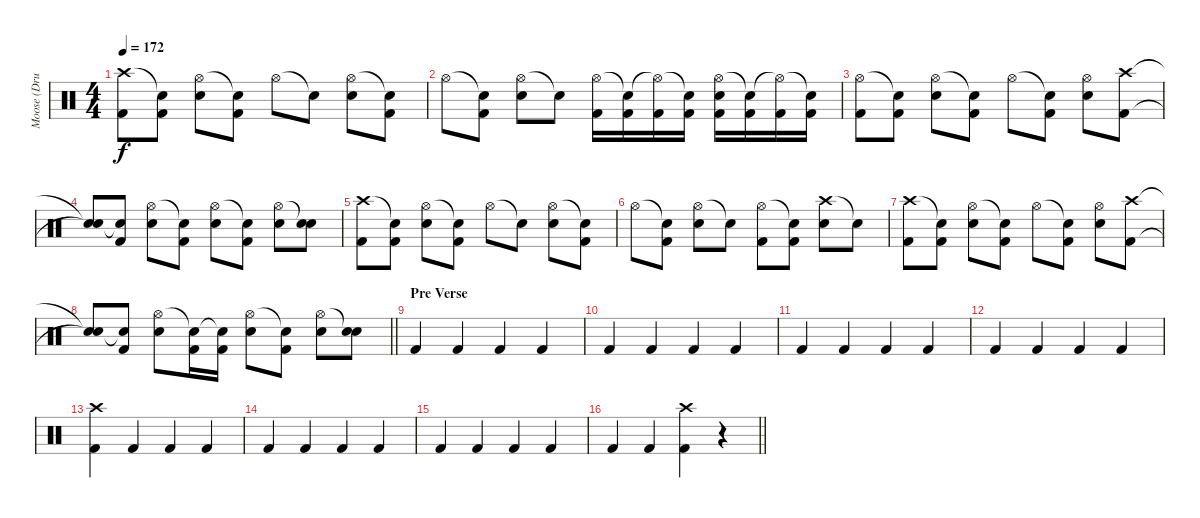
\track ("Moose (Drums)" "Moose (Dru") {instrument percussion}
\staff {score}
\articulation defaults
\ts (4 4)
\tempo 172
\clef neutral
\ks c
("Crash high (hit)" "Kick (hit) 2").8{dy f} ("Snare (hit)"{t} "Kick (hit) 2").8 ("Hi-Hat (open)" "Electric Snare (hit)").8 ("Snare (hit)"{t} "Kick (hit) 2").8 "Hi-Hat (open)".8 "Snare (hit)"{t}.8 ("Hi-Hat (open)" "Electric Snare (hit)").8 ("Snare (hit)"{t} "Kick (hit) 2").8 |
"Hi-Hat (open)".8 ("Snare (hit)"{t} "Kick (hit) 2").8 ("Hi-Hat (open)" "Electric Snare (hit)").8 "Snare (hit)"{t}.8 ("Hi-Hat (open)" "Kick (hit) 2").16 ("Snare (hit)"{t} "Kick (hit) 2").16 ("Hi-Hat (open)"{t} "Kick (hit) 2").16 ("Snare (hit)"{t} "Kick (hit) 2").16 ("Hi-Hat (open)" "Electric Snare (hit)" "Kick (hit) 2").16 ("Snare (hit)"{t} "Kick (hit) 2").16 ("Hi-Hat (open)"{t} "Kick (hit) 2").16 ("Snare (hit)"{t} "Kick (hit) 2").16 |
("Hi-Hat (open)" "Kick (hit) 2").8 ("Snare (hit)"{t} "Kick (hit) 2").8 ("Hi-Hat (open)" "Electric Snare (hit)").8 ("Snare (hit)"{t} "Kick (hit) 2").8 "Hi-Hat (open)".8 ("Snare (hit)"{t} "Kick (hit) 2").8 ("Hi-Hat (open)" "Electric Snare (hit)").8 ("Crash high (hit)" "Kick (hit) 2").8 |
("Snare (hit)"{t} "Snare (hit)"{t}).8 ("Snare (hit)"{t} "Kick (hit) 2").8 ("Hi-Hat (open)" "Electric Snare (hit)").8 ("Snare (hit)"{t} "Kick (hit) 2").8 ("Hi-Hat (open)" "Electric Snare (hit)").8 ("Snare (hit)"{t} "Kick (hit) 2").8 ("Hi-Hat (open)" "Electric Snare (hit)").8 ("Snare (hit)"{t} "Electric Snare (hit)").8 |
("Crash high (hit)" "Kick (hit) 2").8 ("Snare (hit)"{t} "Kick (hit) 2").8 ("Hi-Hat (open)" "Electric Snare (hit)").8 ("Snare (hit)"{t} "Kick (hit) 2").8 "Hi-Hat (open)".8 "Snare (hit)"{t}.8 ("Hi-Hat (open)" "Electric Snare (hit)").8 ("Snare (hit)"{t} "Kick (hit) 2").8 |
"Hi-Hat (open)".8 ("Snare (hit)"{t} "Kick (hit) 2").8 ("Hi-Hat (open)" "Electric Snare (hit)").8 "Snare (hit)"{t}.8 ("Hi-Hat (open)" "Kick (hit) 2").8 ("Snare (hit)"{t} "Kick (hit) 2").8 ("Crash high (hit)" "Electric Snare (hit)").8 "Snare (hit)"{t}.8 |
("Crash high (hit)" "Kick (hit) 2").8 ("Snare (hit)"{t} "Kick (hit) 2").8 ("Hi-Hat (open)" "Electric Snare (hit)").8 ("Snare (hit)"{t} "Kick (hit) 2").8 "Hi-Hat (open)".8 ("Snare (hit)"{t} "Kick (hit) 2").8 ("Hi-Hat (open)" "Electric Snare (hit)").8 ("Crash high (hit)" "Kick (hit) 2").8 |
\barLineRight lightlight
("Snare (hit)"{t} "Snare (hit)"{t}).8 ("Snare (hit)"{t} "Kick (hit) 2").8 ("Hi-Hat (open)" "Electric Snare (hit)").8 ("Snare (hit)"{t} "Kick (hit) 2").16 ("Snare (hit)"{t} "Kick (hit) 2").16 ("Hi-Hat (open)" "Electric Snare (hit)").8 ("Snare (hit)"{t} "Kick (hit) 2").8 ("Hi-Hat (open)" "Electric Snare (hit)").8 ("Snare (hit)"{t} "Electric Snare (hit)").8 |
\section ("" "Pre Verse")
"Kick (hit) 2".4 "Kick (hit) 2".4 "Kick (hit) 2".4 "Kick (hit) 2".4 |
"Kick (hit) 2".4 "Kick (hit) 2".4 "Kick (hit) 2".4 "Kick (hit) 2".4 |
"Kick (hit) 2".4 "Kick (hit) 2".4 "Kick (hit) 2".4 "Kick (hit) 2".4 |
"Kick (hit) 2".4 "Kick (hit) 2".4 "Kick (hit) 2".4 "Kick (hit) 2".4 |
("Crash high (hit)" "Kick (hit) 2").4 "Kick (hit) 2".4 "Kick (hit) 2".4 "Kick (hit) 2".4 |
"Kick (hit) 2".4 "Kick (hit) 2".4 "Kick (hit) 2".4 "Kick (hit) 2".4 |
"Kick (hit) 2".4 "Kick (hit) 2".4 "Kick (hit) 2".4 "Kick (hit) 2".4 |
\barLineRight lightlight "Kick (hit) 2".4 "Kick (hit) 2".4
("Crash high (hit)" "Kick (hit) 2").4 r.4
